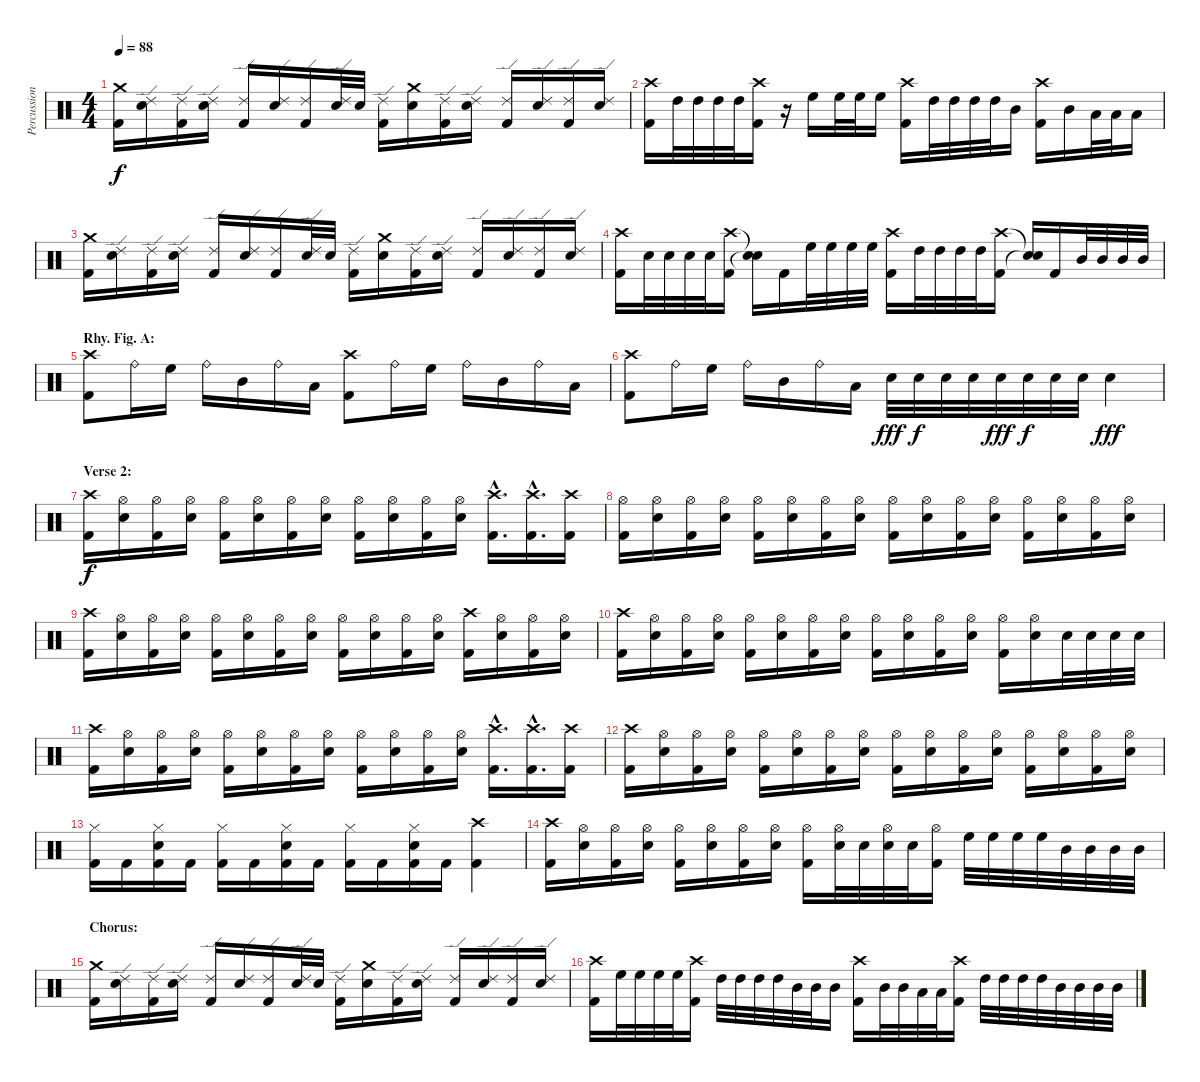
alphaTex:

\track ("Percussion" "Percussion") {instrument percussion}
\staff {score}
\articulation defaults
\ts (4 4)
\tempo 88
\clef neutral
\ks c
("Crash medium (hit)" "Kick (hit) 2").16{dy f} ("Ride (edge) 2" "Electric Snare (hit)").16 ("Ride (edge) 2" "Kick (hit) 2").16 ("Ride (edge) 2" "Electric Snare (hit)").16 ("Ride (edge) 2" "Kick (hit) 2").16 ("Ride (edge) 2" "Electric Snare (hit)").16 ("Ride (edge) 2" "Kick (hit) 2").16 ("Ride (edge) 2" "Electric Snare (hit)").32 "Electric Snare (hit)".32 ("Ride (edge) 2" "Kick (hit) 2").16 ("Crash medium (hit)" "Electric Snare (hit)").16 ("Ride (edge) 2" "Kick (hit) 2").16 ("Ride (edge) 2" "Electric Snare (hit)").16 ("Ride (edge) 2" "Kick (hit) 2").16 ("Ride (edge) 2" "Electric Snare (hit)").16 ("Ride (edge) 2" "Kick (hit) 2").16 ("Ride (edge) 2" "Electric Snare (hit)").16 |
("Crash high (hit)" "Kick (hit) 2").16 "High Tom (hit)".32 "High Tom (hit)".32 "High Tom (hit)".32 "High Tom (hit)".32 ("Crash high (hit)" "Kick (hit) 2").16 r.16 "High Floor Tom (hit)".16 "High Floor Tom (hit)".32 "High Floor Tom (hit)".32 "High Floor Tom (hit)".16 ("Crash high (hit)" "Kick (hit) 2").16 "High Tom (hit)".32 "High Tom (hit)".32 "High Tom (hit)".32 "High Tom (hit)".32 "Mid Tom (hit)".16 ("Crash high (hit)" "Kick (hit) 2").16 "Mid Tom (hit)".16 "Low Tom (hit)".32 "Low Tom (hit)".32 "Low Tom (hit)".16 |
("Crash medium (hit)" "Kick (hit) 2").16 ("Ride (edge) 2" "Electric Snare (hit)").16 ("Ride (edge) 2" "Kick (hit) 2").16 ("Ride (edge) 2" "Electric Snare (hit)").16 ("Ride (edge) 2" "Kick (hit) 2").16 ("Ride (edge) 2" "Electric Snare (hit)").16 ("Ride (edge) 2" "Kick (hit) 2").16 ("Ride (edge) 2" "Electric Snare (hit)").32 "Electric Snare (hit)".32 ("Ride (edge) 2" "Kick (hit) 2").16 ("Crash medium (hit)" "Electric Snare (hit)").16 ("Ride (edge) 2" "Kick (hit) 2").16 ("Ride (edge) 2" "Electric Snare (hit)").16 ("Ride (edge) 2" "Kick (hit) 2").16 ("Ride (edge) 2" "Electric Snare (hit)").16 ("Ride (edge) 2" "Kick (hit) 2").16 ("Ride (edge) 2" "Electric Snare (hit)").16 |
("Crash high (hit)" "Kick (hit) 2").16 "Electric Snare (hit)".32 "Electric Snare (hit)".32 "Electric Snare (hit)".32 "Electric Snare (hit)".32 ("Crash high (hit)" "Kick (hit) 2").16 ("Snare (hit)"{t} "Snare (hit)"{t}).16 "Kick (hit) 2".16 "High Floor Tom (hit)".32 "High Floor Tom (hit)".32 "High Floor Tom (hit)".32 "High Floor Tom (hit)".32 ("Crash high (hit)" "Kick (hit) 2").16 "High Tom (hit)".32 "High Tom (hit)".32 "High Tom (hit)".32 "High Tom (hit)".32 ("Crash high (hit)" "Kick (hit) 2").16 ("Snare (hit)"{t} "Snare (hit)"{t}).16 "Kick (hit) 2".16 "Mid Tom (hit)".32 "Mid Tom (hit)".32 "Mid Tom (hit)".32 "Mid Tom (hit)".32 |
\section ("" "Rhy. Fig. A:")
("Crash high (hit)" "Kick (hit) 2").8 "Ride (bell)".16 "High Floor Tom (hit)".16 "Ride (bell)".16 "Mid Tom (hit)".16 "Ride (bell)".16 "Low Tom (hit)".16 ("Crash high (hit)" "Kick (hit) 2").8 "Ride (bell)".16 "High Floor Tom (hit)".16 "Ride (bell)".16 "Mid Tom (hit)".16 "Ride (bell)".16 "Low Tom (hit)".16 |
("Crash high (hit)" "Kick (hit) 2").8 "Ride (bell)".16 "High Floor Tom (hit)".16 "Ride (bell)".16 "Mid Tom (hit)".16 "Ride (bell)".16 "Low Tom (hit)".16 "Electric Snare (hit)".32{dy fff} "Electric Snare (hit)".32{dy f} "Electric Snare (hit)".32 "Electric Snare (hit)".32 "Electric Snare (hit)".32{dy fff} "Electric Snare (hit)".32{dy f} "Electric Snare (hit)".32 "Electric Snare (hit)".32 "Electric Snare (hit)".4{dy fff} |
\section ("" "Verse 2:")
("Crash high (hit)" "Kick (hit) 2").16{dy f} ("Hi-Hat (open)" "Electric Snare (hit)").16 ("Hi-Hat (open)" "Kick (hit) 2").16 ("Hi-Hat (open)" "Electric Snare (hit)").16 ("Hi-Hat (open)" "Kick (hit) 2").16 ("Hi-Hat (open)" "Electric Snare (hit)").16 ("Hi-Hat (open)" "Kick (hit) 2").16 ("Hi-Hat (open)" "Electric Snare (hit)").16 ("Hi-Hat (open)" "Kick (hit) 2").16 ("Hi-Hat (open)" "Electric Snare (hit)").16 ("Hi-Hat (open)" "Kick (hit) 2").16 ("Hi-Hat (open)" "Electric Snare (hit)").16 ("Crash high (hit)"{hac} "Kick (hit) 2"{hac}).16{d} ("Crash high (hit)"{hac} "Kick (hit) 2"{hac}).16{d} ("Crash high (hit)" "Kick (hit) 2").16 |
("Hi-Hat (open)" "Kick (hit) 2").16 ("Hi-Hat (open)" "Electric Snare (hit)").16 ("Hi-Hat (open)" "Kick (hit) 2").16 ("Hi-Hat (open)" "Electric Snare (hit)").16 ("Hi-Hat (open)" "Kick (hit) 2").16 ("Hi-Hat (open)" "Electric Snare (hit)").16 ("Hi-Hat (open)" "Kick (hit) 2").16 ("Hi-Hat (open)" "Electric Snare (hit)").16 ("Hi-Hat (open)" "Kick (hit) 2").16 ("Hi-Hat (open)" "Electric Snare (hit)").16 ("Hi-Hat (open)" "Kick (hit) 2").16 ("Hi-Hat (open)" "Electric Snare (hit)").16 ("Hi-Hat (open)" "Kick (hit) 2").16 ("Hi-Hat (open)" "Electric Snare (hit)").16 ("Hi-Hat (open)" "Kick (hit) 2").16 ("Hi-Hat (open)" "Electric Snare (hit)").16 |
("Crash high (hit)" "Kick (hit) 2").16 ("Hi-Hat (open)" "Electric Snare (hit)").16 ("Hi-Hat (open)" "Kick (hit) 2").16 ("Hi-Hat (open)" "Electric Snare (hit)").16 ("Hi-Hat (open)" "Kick (hit) 2").16 ("Hi-Hat (open)" "Electric Snare (hit)").16 ("Hi-Hat (open)" "Kick (hit) 2").16 ("Hi-Hat (open)" "Electric Snare (hit)").16 ("Hi-Hat (open)" "Kick (hit) 2").16 ("Hi-Hat (open)" "Electric Snare (hit)").16 ("Hi-Hat (open)" "Kick (hit) 2").16 ("Hi-Hat (open)" "Electric Snare (hit)").16 ("Crash high (hit)" "Kick (hit) 2").16 ("Hi-Hat (open)" "Electric Snare (hit)").16 ("Hi-Hat (open)" "Kick (hit) 2").16 ("Hi-Hat (open)" "Electric Snare (hit)").16 |
("Crash high (hit)" "Kick (hit) 2").16 ("Hi-Hat (open)" "Electric Snare (hit)").16 ("Hi-Hat (open)" "Kick (hit) 2").16 ("Hi-Hat (open)" "Electric Snare (hit)").16 ("Hi-Hat (open)" "Kick (hit) 2").16 ("Hi-Hat (open)" "Electric Snare (hit)").16 ("Hi-Hat (open)" "Kick (hit) 2").16 ("Hi-Hat (open)" "Electric Snare (hit)").16 ("Hi-Hat (open)" "Kick (hit) 2").16 ("Hi-Hat (open)" "Electric Snare (hit)").16 ("Hi-Hat (open)" "Kick (hit) 2").16 ("Hi-Hat (open)" "Electric Snare (hit)").16 ("Hi-Hat (open)" "Kick (hit) 2").16 ("Hi-Hat (open)" "Electric Snare (hit)").16 "Electric Snare (hit)".32 "Electric Snare (hit)".32 "Electric Snare (hit)".32 "Electric Snare (hit)".32 |
("Crash high (hit)" "Kick (hit) 2").16 ("Hi-Hat (open)" "Electric Snare (hit)").16 ("Hi-Hat (open)" "Kick (hit) 2").16 ("Hi-Hat (open)" "Electric Snare (hit)").16 ("Hi-Hat (open)" "Kick (hit) 2").16 ("Hi-Hat (open)" "Electric Snare (hit)").16 ("Hi-Hat (open)" "Kick (hit) 2").16 ("Hi-Hat (open)" "Electric Snare (hit)").16 ("Hi-Hat (open)" "Kick (hit) 2").16 ("Hi-Hat (open)" "Electric Snare (hit)").16 ("Hi-Hat (open)" "Kick (hit) 2").16 ("Hi-Hat (open)" "Electric Snare (hit)").16 ("Crash high (hit)"{hac} "Kick (hit) 2"{hac}).16{d} ("Crash high (hit)"{hac} "Kick (hit) 2"{hac}).16{d} ("Crash high (hit)" "Kick (hit) 2").16 |
("Crash high (hit)" "Kick (hit) 2").16 ("Hi-Hat (open)" "Electric Snare (hit)").16 ("Hi-Hat (open)" "Kick (hit) 2").16 ("Hi-Hat (open)" "Electric Snare (hit)").16 ("Hi-Hat (open)" "Kick (hit) 2").16 ("Hi-Hat (open)" "Electric Snare (hit)").16 ("Hi-Hat (open)" "Kick (hit) 2").16 ("Hi-Hat (open)" "Electric Snare (hit)").16 ("Hi-Hat (open)" "Kick (hit) 2").16 ("Hi-Hat (open)" "Electric Snare (hit)").16 ("Hi-Hat (open)" "Kick (hit) 2").16 ("Hi-Hat (open)" "Electric Snare (hit)").16 ("Hi-Hat (open)" "Kick (hit) 2").16 ("Hi-Hat (open)" "Electric Snare (hit)").16 ("Hi-Hat (open)" "Kick (hit) 2").16 ("Hi-Hat (open)" "Electric Snare (hit)").16 |
("Hi-Hat (closed)" "Kick (hit) 2").16 "Kick (hit) 2".16 ("Hi-Hat (closed)" "Electric Snare (hit)" "Kick (hit) 2").16 "Kick (hit) 2".16 ("Hi-Hat (closed)" "Kick (hit) 2").16 "Kick (hit) 2".16 ("Hi-Hat (closed)" "Electric Snare (hit)" "Kick (hit) 2").16 "Kick (hit) 2".16 ("Hi-Hat (closed)" "Kick (hit) 2").16 "Kick (hit) 2".16 ("Hi-Hat (closed)" "Electric Snare (hit)" "Kick (hit) 2").16 "Kick (hit) 2".16 ("Crash high (hit)" "Kick (hit) 2").4 |
("Crash high (hit)" "Kick (hit) 2").16 ("Hi-Hat (open)" "Electric Snare (hit)").16 ("Hi-Hat (open)" "Kick (hit) 2").16 ("Hi-Hat (open)" "Electric Snare (hit)").16 ("Hi-Hat (open)" "Kick (hit) 2").16 ("Hi-Hat (open)" "Electric Snare (hit)").16 ("Hi-Hat (open)" "Kick (hit) 2").16 ("Hi-Hat (open)" "Electric Snare (hit)").16 ("Hi-Hat (open)" "Kick (hit) 2").16 ("Hi-Hat (open)" "Electric Snare (hit)").32 "Electric Snare (hit)".32 ("Hi-Hat (open)" "Electric Snare (hit)").32 "Electric Snare (hit)".32 ("Hi-Hat (open)" "Kick (hit) 2").16 "High Floor Tom (hit)".32 "High Floor Tom (hit)".32 "High Floor Tom (hit)".32 "High Floor Tom (hit)".32 "Mid Tom (hit)".32 "Mid Tom (hit)".32 "Mid Tom (hit)".32 "Mid Tom (hit)".32 |
\section ("" "Chorus:")
("Crash medium (hit)" "Kick (hit) 2").16 ("Ride (edge) 2" "Electric Snare (hit)").16 ("Ride (edge) 2" "Kick (hit) 2").16 ("Ride (edge) 2" "Electric Snare (hit)").16 ("Ride (edge) 2" "Kick (hit) 2").16 ("Ride (edge) 2" "Electric Snare (hit)").16 ("Ride (edge) 2" "Kick (hit) 2").16 ("Ride (edge) 2" "Electric Snare (hit)").32 "Electric Snare (hit)".32 ("Ride (edge) 2" "Kick (hit) 2").16 ("Crash medium (hit)" "Electric Snare (hit)").16 ("Ride (edge) 2" "Kick (hit) 2").16 ("Ride (edge) 2" "Electric Snare (hit)").16 ("Ride (edge) 2" "Kick (hit) 2").16 ("Ride (edge) 2" "Electric Snare (hit)").16 ("Ride (edge) 2" "Kick (hit) 2").16 ("Ride (edge) 2" "Electric Snare (hit)").16 |
("Crash high (hit)" "Kick (hit) 2").16 "High Floor Tom (hit)".32 "High Floor Tom (hit)".32 "High Floor Tom (hit)".32 "High Floor Tom (hit)".32 ("Crash high (hit)" "Kick (hit) 2").16 "High Tom (hit)".32 "High Tom (hit)".32 "High Tom (hit)".32 "High Tom (hit)".32 "Mid Tom (hit)".32 "Mid Tom (hit)".32 "Mid Tom (hit)".16 ("Crash high (hit)" "Kick (hit) 2").16 "Mid Tom (hit)".32 "Mid Tom (hit)".32 "Low Tom (hit)".32 "Low Tom (hit)".32 ("Crash high (hit)" "Kick (hit) 2").16 "High Tom (hit)".32 "High Tom (hit)".32 "High Tom (hit)".32 "High Tom (hit)".32 "Mid Tom (hit)".32 "Mid Tom (hit)".32 "Mid Tom (hit)".32 "Mid Tom (hit)".32
